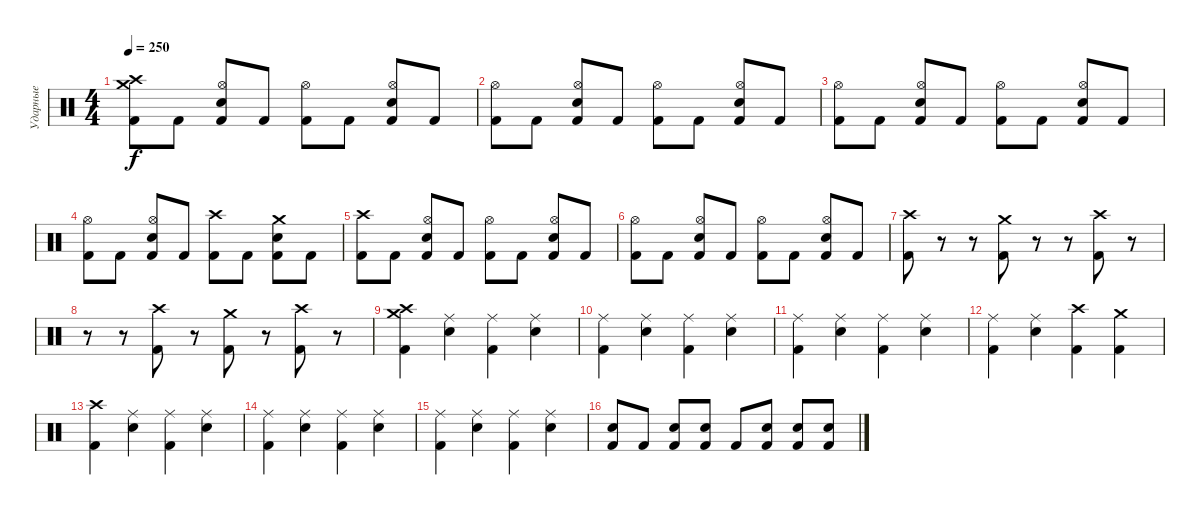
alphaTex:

\track ("Ударные" "Ударные") {instrument percussion}
\staff {score}
\articulation defaults
\ts (4 4)
\tempo 250
\clef neutral
\ks c
("Crash medium (hit)" "Crash high (hit)" "Kick (hit) 2").8{dy f} "Kick (hit) 2".8 ("Hi-Hat (open)" "Electric Snare (hit)" "Kick (hit) 2").8 "Kick (hit) 2".8 ("Hi-Hat (open)" "Kick (hit) 2").8 "Kick (hit) 2".8 ("Hi-Hat (open)" "Electric Snare (hit)" "Kick (hit) 2").8 "Kick (hit) 2".8 |
("Hi-Hat (open)" "Kick (hit) 2").8 "Kick (hit) 2".8 ("Hi-Hat (open)" "Electric Snare (hit)" "Kick (hit) 2").8 "Kick (hit) 2".8 ("Hi-Hat (open)" "Kick (hit) 2").8 "Kick (hit) 2".8 ("Hi-Hat (open)" "Electric Snare (hit)" "Kick (hit) 2").8 "Kick (hit) 2".8 |
("Hi-Hat (open)" "Kick (hit) 2").8 "Kick (hit) 2".8 ("Hi-Hat (open)" "Electric Snare (hit)" "Kick (hit) 2").8 "Kick (hit) 2".8 ("Hi-Hat (open)" "Kick (hit) 2").8 "Kick (hit) 2".8 ("Hi-Hat (open)" "Electric Snare (hit)" "Kick (hit) 2").8 "Kick (hit) 2".8 |
("Hi-Hat (open)" "Kick (hit) 2").8 "Kick (hit) 2".8 ("Hi-Hat (open)" "Electric Snare (hit)" "Kick (hit) 2").8 "Kick (hit) 2".8 ("Crash high (hit)" "Kick (hit) 2").8 "Kick (hit) 2".8 ("Crash medium (hit)" "Electric Snare (hit)" "Kick (hit) 2").8 "Kick (hit) 2".8 |
("Crash high (hit)" "Kick (hit) 2").8 "Kick (hit) 2".8 ("Hi-Hat (open)" "Electric Snare (hit)" "Kick (hit) 2").8 "Kick (hit) 2".8 ("Hi-Hat (open)" "Kick (hit) 2").8 "Kick (hit) 2".8 ("Hi-Hat (open)" "Electric Snare (hit)" "Kick (hit) 2").8 "Kick (hit) 2".8 |
("Hi-Hat (open)" "Kick (hit) 2").8 "Kick (hit) 2".8 ("Hi-Hat (open)" "Electric Snare (hit)" "Kick (hit) 2").8 "Kick (hit) 2".8 ("Hi-Hat (open)" "Kick (hit) 2").8 "Kick (hit) 2".8 ("Hi-Hat (open)" "Electric Snare (hit)" "Kick (hit) 2").8 "Kick (hit) 2".8 |
("Crash high (hit)" "Kick (hit) 2").8 r.8 r.8 ("Crash medium (hit)" "Kick (hit) 2").8 r.8 r.8 ("Crash high (hit)" "Kick (hit) 2").8 r.8 |
r.8 r.8 ("Crash high (hit)" "Kick (hit) 2").8 r.8 ("Crash medium (hit)" "Kick (hit) 2").8 r.8 ("Crash high (hit)" "Kick (hit) 2").8 r.8 |
("Crash medium (hit)" "Crash high (hit)" "Kick (hit) 2").4 ("Ride (middle)" "Electric Snare (hit)").4 ("Ride (middle)" "Kick (hit) 2").4 ("Ride (middle)" "Electric Snare (hit)").4 |
("Ride (middle)" "Kick (hit) 2").4 ("Ride (middle)" "Electric Snare (hit)").4 ("Ride (middle)" "Kick (hit) 2").4 ("Ride (middle)" "Electric Snare (hit)").4 |
("Ride (middle)" "Kick (hit) 2").4 ("Ride (middle)" "Electric Snare (hit)").4 ("Ride (middle)" "Kick (hit) 2").4 ("Ride (middle)" "Electric Snare (hit)").4 |
("Ride (middle)" "Kick (hit) 2").4 ("Ride (middle)" "Electric Snare (hit)").4 ("Crash high (hit)" "Kick (hit) 2").4 ("Crash medium (hit)" "Kick (hit) 2").4 |
("Crash high (hit)" "Kick (hit) 2").4 ("Ride (middle)" "Electric Snare (hit)").4 ("Ride (middle)" "Kick (hit) 2").4 ("Ride (middle)" "Electric Snare (hit)").4 |
("Ride (middle)" "Kick (hit) 2").4 ("Ride (middle)" "Electric Snare (hit)").4 ("Ride (middle)" "Kick (hit) 2").4 ("Ride (middle)" "Electric Snare (hit)").4 |
("Ride (middle)" "Kick (hit) 2").4 ("Ride (middle)" "Electric Snare (hit)").4 ("Ride (middle)" "Kick (hit) 2").4 ("Ride (middle)" "Electric Snare (hit)").4 |
("Electric Snare (hit)" "Kick (hit) 2").8 "Kick (hit) 2".8 ("Electric Snare (hit)" "Kick (hit) 2").8 ("Electric Snare (hit)" "Kick (hit) 2").8 "Kick (hit) 2".8 ("Electric Snare (hit)" "Kick (hit) 2").8 ("Electric Snare (hit)" "Kick (hit) 2").8 ("Electric Snare (hit)" "Kick (hit) 2").8
